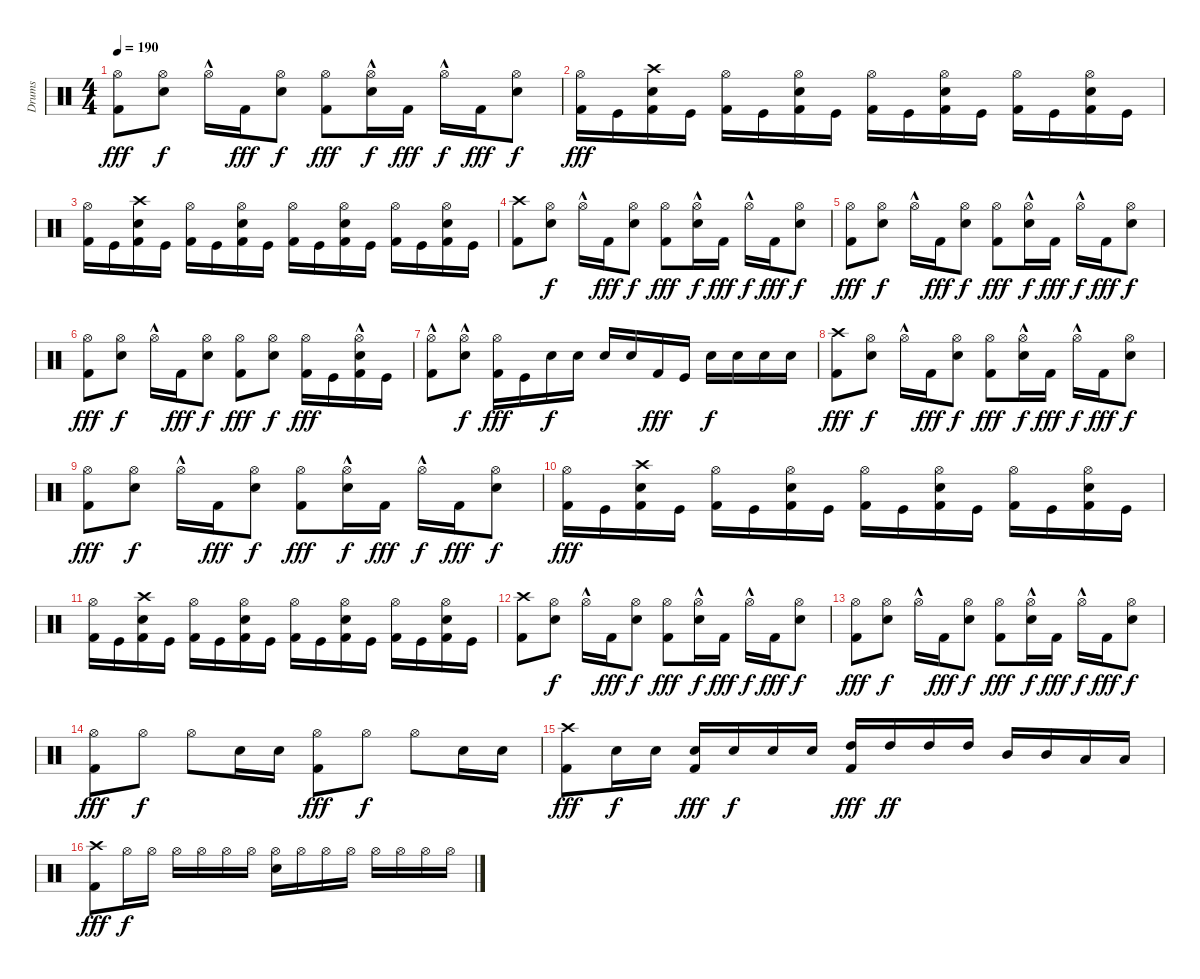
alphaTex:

\track ("Drums" "Drums") {instrument percussion}
\staff {score}
\articulation defaults
\ts (4 4)
\tempo 190
\clef neutral
\ks c
("Hi-Hat (open)" "Kick (hit) 2").8{dy fff} ("Hi-Hat (open)" "Electric Snare (hit)").8{dy f} "Hi-Hat (open)"{hac}.16 "Kick (hit) 2".16{dy fff} ("Hi-Hat (open)" "Electric Snare (hit)").8{dy f} ("Hi-Hat (open)" "Kick (hit) 2").8{dy fff} ("Hi-Hat (open)"{hac} "Electric Snare (hit)").16{dy f} "Kick (hit) 2".16{dy fff} "Hi-Hat (open)"{hac}.16{dy f} "Kick (hit) 2".16{dy fff} ("Hi-Hat (open)" "Electric Snare (hit)").8{dy f} |
("Hi-Hat (open)" "Kick (hit) 2").16{dy fff} "Kick (hit)".16 ("Crash high (hit)" "Electric Snare (hit)" "Kick (hit) 2").16 "Kick (hit)".16 ("Hi-Hat (open)" "Kick (hit) 2").16 "Kick (hit)".16 ("Hi-Hat (open)" "Electric Snare (hit)" "Kick (hit) 2").16 "Kick (hit)".16 ("Hi-Hat (open)" "Kick (hit) 2").16 "Kick (hit)".16 ("Hi-Hat (open)" "Electric Snare (hit)" "Kick (hit) 2").16 "Kick (hit)".16 ("Hi-Hat (open)" "Kick (hit) 2").16 "Kick (hit)".16 ("Hi-Hat (open)" "Electric Snare (hit)" "Kick (hit) 2").16 "Kick (hit)".16 |
("Hi-Hat (open)" "Kick (hit) 2").16 "Kick (hit)".16 ("Crash high (hit)" "Electric Snare (hit)" "Kick (hit) 2").16 "Kick (hit)".16 ("Hi-Hat (open)" "Kick (hit) 2").16 "Kick (hit)".16 ("Hi-Hat (open)" "Electric Snare (hit)" "Kick (hit) 2").16 "Kick (hit)".16 ("Hi-Hat (open)" "Kick (hit) 2").16 "Kick (hit)".16 ("Hi-Hat (open)" "Electric Snare (hit)" "Kick (hit) 2").16 "Kick (hit)".16 ("Hi-Hat (open)" "Kick (hit) 2").16 "Kick (hit)".16 ("Hi-Hat (open)" "Electric Snare (hit)" "Kick (hit) 2").16 "Kick (hit)".16 |
("Crash high (hit)" "Kick (hit) 2").8 ("Hi-Hat (open)" "Electric Snare (hit)").8{dy f} "Hi-Hat (open)"{hac}.16 "Kick (hit) 2".16{dy fff} ("Hi-Hat (open)" "Electric Snare (hit)").8{dy f} ("Hi-Hat (open)" "Kick (hit) 2").8{dy fff} ("Hi-Hat (open)"{hac} "Electric Snare (hit)").16{dy f} "Kick (hit) 2".16{dy fff} "Hi-Hat (open)"{hac}.16{dy f} "Kick (hit) 2".16{dy fff} ("Hi-Hat (open)" "Electric Snare (hit)").8{dy f} |
("Hi-Hat (open)" "Kick (hit) 2").8{dy fff} ("Hi-Hat (open)" "Electric Snare (hit)").8{dy f} "Hi-Hat (open)"{hac}.16 "Kick (hit) 2".16{dy fff} ("Hi-Hat (open)" "Electric Snare (hit)").8{dy f} ("Hi-Hat (open)" "Kick (hit) 2").8{dy fff} ("Hi-Hat (open)"{hac} "Electric Snare (hit)").16{dy f} "Kick (hit) 2".16{dy fff} "Hi-Hat (open)"{hac}.16{dy f} "Kick (hit) 2".16{dy fff} ("Hi-Hat (open)" "Electric Snare (hit)").8{dy f} |
("Hi-Hat (open)" "Kick (hit) 2").8{dy fff} ("Hi-Hat (open)" "Electric Snare (hit)").8{dy f} "Hi-Hat (open)"{hac}.16 "Kick (hit) 2".16{dy fff} ("Hi-Hat (open)" "Electric Snare (hit)").8{dy f} ("Hi-Hat (open)" "Kick (hit) 2").8{dy fff} ("Hi-Hat (open)" "Electric Snare (hit)").8{dy f} ("Hi-Hat (open)" "Kick (hit) 2").16{dy fff} "Kick (hit)".16 ("Hi-Hat (open)"{hac} "Electric Snare (hit)" "Kick (hit) 2").16 "Kick (hit)".16 |
("Hi-Hat (open)"{hac} "Kick (hit) 2").8 ("Hi-Hat (open)"{hac} "Electric Snare (hit)").8{dy f} ("Hi-Hat (open)" "Kick (hit) 2").16{dy fff} "Kick (hit)".16 "Electric Snare (hit)".16{dy f} "Electric Snare (hit)".16 "Electric Snare (hit)".16 "Electric Snare (hit)".16 "Kick (hit) 2".16{dy fff} "Kick (hit)".16 "Electric Snare (hit)".16{dy f} "Electric Snare (hit)".16 "Electric Snare (hit)".16 "Electric Snare (hit)".16 |
("Crash high (hit)" "Kick (hit) 2").8{dy fff} ("Hi-Hat (open)" "Electric Snare (hit)").8{dy f} "Hi-Hat (open)"{hac}.16 "Kick (hit) 2".16{dy fff} ("Hi-Hat (open)" "Electric Snare (hit)").8{dy f} ("Hi-Hat (open)" "Kick (hit) 2").8{dy fff} ("Hi-Hat (open)"{hac} "Electric Snare (hit)").16{dy f} "Kick (hit) 2".16{dy fff} "Hi-Hat (open)"{hac}.16{dy f} "Kick (hit) 2".16{dy fff} ("Hi-Hat (open)" "Electric Snare (hit)").8{dy f} |
("Hi-Hat (open)" "Kick (hit) 2").8{dy fff} ("Hi-Hat (open)" "Electric Snare (hit)").8{dy f} "Hi-Hat (open)"{hac}.16 "Kick (hit) 2".16{dy fff} ("Hi-Hat (open)" "Electric Snare (hit)").8{dy f} ("Hi-Hat (open)" "Kick (hit) 2").8{dy fff} ("Hi-Hat (open)"{hac} "Electric Snare (hit)").16{dy f} "Kick (hit) 2".16{dy fff} "Hi-Hat (open)"{hac}.16{dy f} "Kick (hit) 2".16{dy fff} ("Hi-Hat (open)" "Electric Snare (hit)").8{dy f} |
("Hi-Hat (open)" "Kick (hit) 2").16{dy fff} "Kick (hit)".16 ("Crash high (hit)" "Electric Snare (hit)" "Kick (hit) 2").16 "Kick (hit)".16 ("Hi-Hat (open)" "Kick (hit) 2").16 "Kick (hit)".16 ("Hi-Hat (open)" "Electric Snare (hit)" "Kick (hit) 2").16 "Kick (hit)".16 ("Hi-Hat (open)" "Kick (hit) 2").16 "Kick (hit)".16 ("Hi-Hat (open)" "Electric Snare (hit)" "Kick (hit) 2").16 "Kick (hit)".16 ("Hi-Hat (open)" "Kick (hit) 2").16 "Kick (hit)".16 ("Hi-Hat (open)" "Electric Snare (hit)" "Kick (hit) 2").16 "Kick (hit)".16 |
("Hi-Hat (open)" "Kick (hit) 2").16 "Kick (hit)".16 ("Crash high (hit)" "Electric Snare (hit)" "Kick (hit) 2").16 "Kick (hit)".16 ("Hi-Hat (open)" "Kick (hit) 2").16 "Kick (hit)".16 ("Hi-Hat (open)" "Electric Snare (hit)" "Kick (hit) 2").16 "Kick (hit)".16 ("Hi-Hat (open)" "Kick (hit) 2").16 "Kick (hit)".16 ("Hi-Hat (open)" "Electric Snare (hit)" "Kick (hit) 2").16 "Kick (hit)".16 ("Hi-Hat (open)" "Kick (hit) 2").16 "Kick (hit)".16 ("Hi-Hat (open)" "Electric Snare (hit)" "Kick (hit) 2").16 "Kick (hit)".16 |
("Crash high (hit)" "Kick (hit) 2").8 ("Hi-Hat (open)" "Electric Snare (hit)").8{dy f} "Hi-Hat (open)"{hac}.16 "Kick (hit) 2".16{dy fff} ("Hi-Hat (open)" "Electric Snare (hit)").8{dy f} ("Hi-Hat (open)" "Kick (hit) 2").8{dy fff} ("Hi-Hat (open)"{hac} "Electric Snare (hit)").16{dy f} "Kick (hit) 2".16{dy fff} "Hi-Hat (open)"{hac}.16{dy f} "Kick (hit) 2".16{dy fff} ("Hi-Hat (open)" "Electric Snare (hit)").8{dy f} |
("Hi-Hat (open)" "Kick (hit) 2").8{dy fff} ("Hi-Hat (open)" "Electric Snare (hit)").8{dy f} "Hi-Hat (open)"{hac}.16 "Kick (hit) 2".16{dy fff} ("Hi-Hat (open)" "Electric Snare (hit)").8{dy f} ("Hi-Hat (open)" "Kick (hit) 2").8{dy fff} ("Hi-Hat (open)"{hac} "Electric Snare (hit)").16{dy f} "Kick (hit) 2".16{dy fff} "Hi-Hat (open)"{hac}.16{dy f} "Kick (hit) 2".16{dy fff} ("Hi-Hat (open)" "Electric Snare (hit)").8{dy f} |
("Hi-Hat (open)" "Kick (hit) 2").8{dy fff} "Hi-Hat (open)".8{dy f} "Hi-Hat (open)".8 "Electric Snare (hit)".16 "Electric Snare (hit)".16 ("Hi-Hat (open)" "Kick (hit) 2").8{dy fff} "Hi-Hat (open)".8{dy f} "Hi-Hat (open)".8 "Electric Snare (hit)".16 "Electric Snare (hit)".16 |
("Crash high (hit)" "Kick (hit) 2").8{dy fff} "Electric Snare (hit)".16{dy f} "Electric Snare (hit)".16 ("Electric Snare (hit)" "Kick (hit) 2").16{dy fff} "Electric Snare (hit)".16{dy f} "Electric Snare (hit)".16 "Electric Snare (hit)".16 ("High Tom (hit)" "Kick (hit) 2").16{dy fff} "High Tom (hit)".16{dy ff} "High Tom (hit)".16 "High Tom (hit)".16 "Mid Tom (hit)".16 "Mid Tom (hit)".16 "Low Tom (hit)".16 "Low Tom (hit)".16 |
("Crash high (hit)" "Kick (hit) 2").8{dy fff} "Hi-Hat (open)".16{dy f} "Hi-Hat (open)".16 "Hi-Hat (open)".16 "Hi-Hat (open)".16 "Hi-Hat (open)".16 "Hi-Hat (open)".16 ("Hi-Hat (open)" "Electric Snare (hit)").16 "Hi-Hat (open)".16 "Hi-Hat (open)".16 "Hi-Hat (open)".16 "Hi-Hat (open)".16 "Hi-Hat (open)".16 "Hi-Hat (open)".16 "Hi-Hat (open)".16
